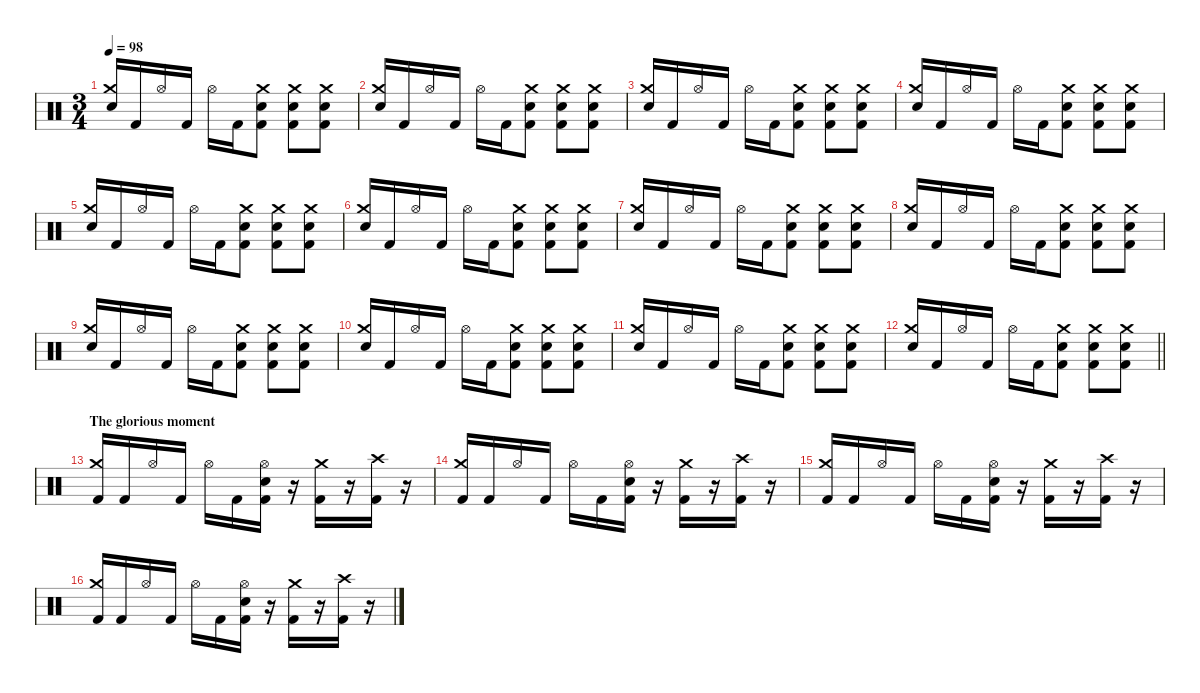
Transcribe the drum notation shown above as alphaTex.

\defaultSystemsLayout 4
\hideDynamics
\bracketExtendMode nobrackets
\singleTrackTrackNamePolicy hidden
\multiTrackTrackNamePolicy hidden
\firstSystemTrackNameMode fullname
\firstSystemTrackNameOrientation horizontal
\otherSystemsTrackNameOrientation horizontal
\track ("Drums" "drm.") {instrument percussion}
\staff {score}
\articulation defaults
\ts (3 4)
\tempo 98
\clef neutral
\ks c
("Crash medium (hit)" "Snare (hit) 2").16{dy f beam Up} "Kick (hit) 2".16{beam Up} "Hi-Hat (open)".16{beam Up} "Kick (hit) 2".16{beam Up} "Hi-Hat (open)".16{beam Down} "Kick (hit) 2".16{beam Down} ("Crash medium (hit)" "Snare (hit) 2" "Kick (hit) 2").8{beam Down} ("Crash medium (hit)" "Snare (hit) 2" "Kick (hit) 2").8{beam Down} ("Crash medium (hit)" "Snare (hit) 2" "Kick (hit) 2").8{beam Down} |
("Crash medium (hit)" "Snare (hit) 2").16{beam Up} "Kick (hit) 2".16{beam Up} "Hi-Hat (open)".16{beam Up} "Kick (hit) 2".16{beam Up} "Hi-Hat (open)".16{beam Down} "Kick (hit) 2".16{beam Down} ("Crash medium (hit)" "Snare (hit) 2" "Kick (hit) 2").8{beam Down} ("Crash medium (hit)" "Snare (hit) 2" "Kick (hit) 2").8{beam Down} ("Crash medium (hit)" "Snare (hit) 2" "Kick (hit) 2").8{beam Down} |
("Crash medium (hit)" "Snare (hit) 2").16{beam Up} "Kick (hit) 2".16{beam Up} "Hi-Hat (open)".16{beam Up} "Kick (hit) 2".16{beam Up} "Hi-Hat (open)".16{beam Down} "Kick (hit) 2".16{beam Down} ("Crash medium (hit)" "Snare (hit) 2" "Kick (hit) 2").8{beam Down} ("Crash medium (hit)" "Snare (hit) 2" "Kick (hit) 2").8{beam Down} ("Crash medium (hit)" "Snare (hit) 2" "Kick (hit) 2").8{beam Down} |
("Crash medium (hit)" "Snare (hit) 2").16{beam Up} "Kick (hit) 2".16{beam Up} "Hi-Hat (open)".16{beam Up} "Kick (hit) 2".16{beam Up} "Hi-Hat (open)".16{beam Down} "Kick (hit) 2".16{beam Down} ("Crash medium (hit)" "Snare (hit) 2" "Kick (hit) 2").8{beam Down} ("Crash medium (hit)" "Snare (hit) 2" "Kick (hit) 2").8{beam Down} ("Crash medium (hit)" "Snare (hit) 2" "Kick (hit) 2").8{beam Down} |
("Crash medium (hit)" "Snare (hit) 2").16{beam Up} "Kick (hit) 2".16{beam Up} "Hi-Hat (open)".16{beam Up} "Kick (hit) 2".16{beam Up} "Hi-Hat (open)".16{beam Down} "Kick (hit) 2".16{beam Down} ("Crash medium (hit)" "Snare (hit) 2" "Kick (hit) 2").8{beam Down} ("Crash medium (hit)" "Snare (hit) 2" "Kick (hit) 2").8{beam Down} ("Crash medium (hit)" "Snare (hit) 2" "Kick (hit) 2").8{beam Down} |
("Crash medium (hit)" "Snare (hit) 2").16{beam Up} "Kick (hit) 2".16{beam Up} "Hi-Hat (open)".16{beam Up} "Kick (hit) 2".16{beam Up} "Hi-Hat (open)".16{beam Down} "Kick (hit) 2".16{beam Down} ("Crash medium (hit)" "Snare (hit) 2" "Kick (hit) 2").8{beam Down} ("Crash medium (hit)" "Snare (hit) 2" "Kick (hit) 2").8{beam Down} ("Crash medium (hit)" "Snare (hit) 2" "Kick (hit) 2").8{beam Down} |
("Crash medium (hit)" "Snare (hit) 2").16{beam Up} "Kick (hit) 2".16{beam Up} "Hi-Hat (open)".16{beam Up} "Kick (hit) 2".16{beam Up} "Hi-Hat (open)".16{beam Down} "Kick (hit) 2".16{beam Down} ("Crash medium (hit)" "Snare (hit) 2" "Kick (hit) 2").8{beam Down} ("Crash medium (hit)" "Snare (hit) 2" "Kick (hit) 2").8{beam Down} ("Crash medium (hit)" "Snare (hit) 2" "Kick (hit) 2").8{beam Down} |
("Crash medium (hit)" "Snare (hit) 2").16{beam Up} "Kick (hit) 2".16{beam Up} "Hi-Hat (open)".16{beam Up} "Kick (hit) 2".16{beam Up} "Hi-Hat (open)".16{beam Down} "Kick (hit) 2".16{beam Down} ("Crash medium (hit)" "Snare (hit) 2" "Kick (hit) 2").8{beam Down} ("Crash medium (hit)" "Snare (hit) 2" "Kick (hit) 2").8{beam Down} ("Crash medium (hit)" "Snare (hit) 2" "Kick (hit) 2").8{beam Down} |
("Crash medium (hit)" "Snare (hit) 2").16{beam Up} "Kick (hit) 2".16{beam Up} "Hi-Hat (open)".16{beam Up} "Kick (hit) 2".16{beam Up} "Hi-Hat (open)".16{beam Down} "Kick (hit) 2".16{beam Down} ("Crash medium (hit)" "Snare (hit) 2" "Kick (hit) 2").8{beam Down} ("Crash medium (hit)" "Snare (hit) 2" "Kick (hit) 2").8{beam Down} ("Crash medium (hit)" "Snare (hit) 2" "Kick (hit) 2").8{beam Down} |
("Crash medium (hit)" "Snare (hit) 2").16{beam Up} "Kick (hit) 2".16{beam Up} "Hi-Hat (open)".16{beam Up} "Kick (hit) 2".16{beam Up} "Hi-Hat (open)".16{beam Down} "Kick (hit) 2".16{beam Down} ("Crash medium (hit)" "Snare (hit) 2" "Kick (hit) 2").8{beam Down} ("Crash medium (hit)" "Snare (hit) 2" "Kick (hit) 2").8{beam Down} ("Crash medium (hit)" "Snare (hit) 2" "Kick (hit) 2").8{beam Down} |
("Crash medium (hit)" "Snare (hit) 2").16{beam Up} "Kick (hit) 2".16{beam Up} "Hi-Hat (open)".16{beam Up} "Kick (hit) 2".16{beam Up} "Hi-Hat (open)".16{beam Down} "Kick (hit) 2".16{beam Down} ("Crash medium (hit)" "Snare (hit) 2" "Kick (hit) 2").8{beam Down} ("Crash medium (hit)" "Snare (hit) 2" "Kick (hit) 2").8{beam Down} ("Crash medium (hit)" "Snare (hit) 2" "Kick (hit) 2").8{beam Down} |
\barLineRight lightlight
("Crash medium (hit)" "Snare (hit) 2").16{beam Up} "Kick (hit) 2".16{beam Up} "Hi-Hat (open)".16{beam Up} "Kick (hit) 2".16{beam Up} "Hi-Hat (open)".16{beam Down} "Kick (hit) 2".16{beam Down} ("Crash medium (hit)" "Snare (hit) 2" "Kick (hit) 2").8{beam Down} ("Crash medium (hit)" "Snare (hit) 2" "Kick (hit) 2").8{beam Down} ("Crash medium (hit)" "Snare (hit) 2" "Kick (hit) 2").8{beam Down} |
\section ("" "The glorious moment")
("Crash medium (hit)" "Kick (hit) 2").16{beam Up} "Kick (hit) 2".16{beam Up} "Hi-Hat (open)".16{beam Up} "Kick (hit) 2".16{beam Up} "Hi-Hat (open)".16{beam Down} "Kick (hit) 2".16{beam Down} ("Hi-Hat (open)" "Snare (hit) 2" "Kick (hit) 2").16{beam Down} r.16{beam Down} ("Crash medium (hit)" "Kick (hit) 2").16{beam Down} r.16{beam Down} ("Crash high (hit)" "Kick (hit) 2").16{beam Down} r.16{beam Down} |
("Crash medium (hit)" "Kick (hit) 2").16{beam Up} "Kick (hit) 2".16{beam Up} "Hi-Hat (open)".16{beam Up} "Kick (hit) 2".16{beam Up} "Hi-Hat (open)".16{beam Down} "Kick (hit) 2".16{beam Down} ("Hi-Hat (open)" "Snare (hit) 2" "Kick (hit) 2").16{beam Down} r.16{beam Down} ("Crash medium (hit)" "Kick (hit) 2").16{beam Down} r.16{beam Down} ("Crash high (hit)" "Kick (hit) 2").16{beam Down} r.16{beam Down} |
("Crash medium (hit)" "Kick (hit) 2").16{beam Up} "Kick (hit) 2".16{beam Up} "Hi-Hat (open)".16{beam Up} "Kick (hit) 2".16{beam Up} "Hi-Hat (open)".16{beam Down} "Kick (hit) 2".16{beam Down} ("Hi-Hat (open)" "Snare (hit) 2" "Kick (hit) 2").16{beam Down} r.16{beam Down} ("Crash medium (hit)" "Kick (hit) 2").16{beam Down} r.16{beam Down} ("Crash high (hit)" "Kick (hit) 2").16{beam Down} r.16{beam Down} |
("Crash medium (hit)" "Kick (hit) 2").16{beam Up} "Kick (hit) 2".16{beam Up} "Hi-Hat (open)".16{beam Up} "Kick (hit) 2".16{beam Up} "Hi-Hat (open)".16{beam Down} "Kick (hit) 2".16{beam Down} ("Hi-Hat (open)" "Snare (hit) 2" "Kick (hit) 2").16{beam Down} r.16{beam Down} ("Crash medium (hit)" "Kick (hit) 2").16{beam Down} r.16{beam Down} ("Crash high (hit)" "Kick (hit) 2").16{beam Down} r.16{beam Down}
